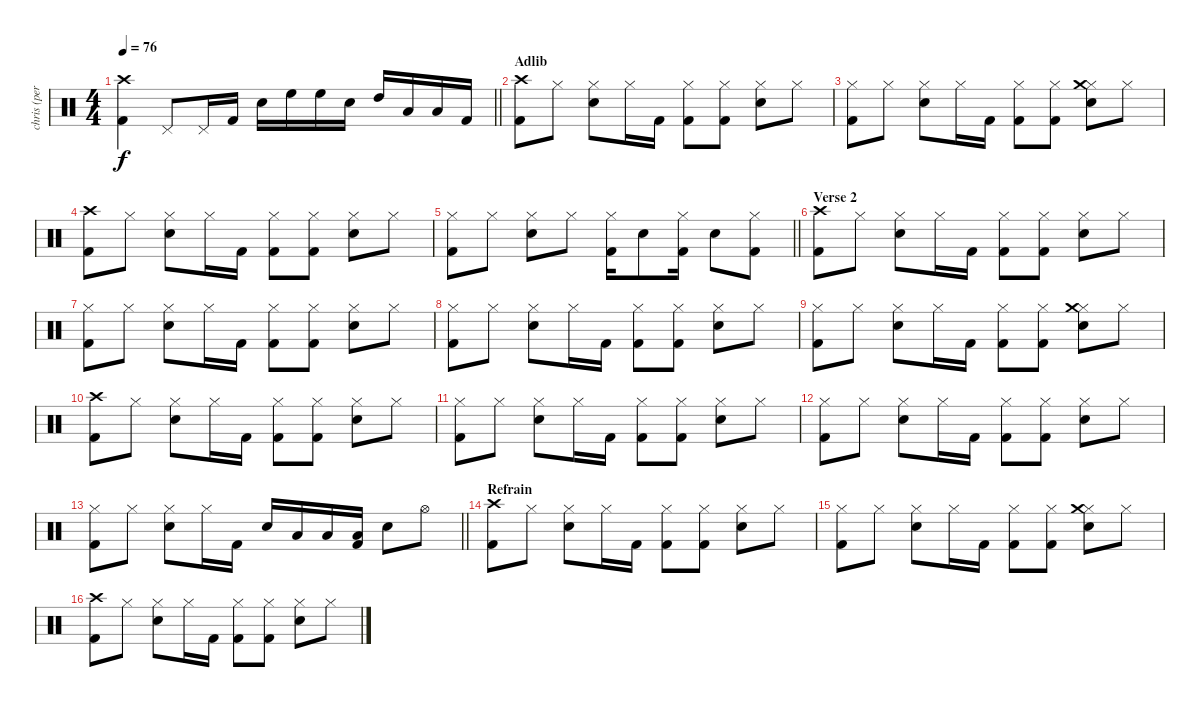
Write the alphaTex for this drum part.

\track ("chris (percussion)" "chris (per") {instrument percussion}
\staff {score}
\articulation defaults
\ts (4 4)
\tempo 76
\clef neutral
\barLineRight lightlight
\ks c
("Crash high (hit)" "Kick (hit) 2").4{dy f} "Pedal Hi-Hat (hit)".8 "Pedal Hi-Hat (hit)".16 "Kick (hit) 2".16 "Electric Snare (hit)".16 "High Floor Tom (hit)".16 "High Floor Tom (hit)".16 "Electric Snare (hit)".16 "High Tom (hit)".16 "Low Floor Tom (hit)".16 "Low Floor Tom (hit)".16 "Kick (hit) 2".16 |
\section ("" "Adlib")
("Crash high (hit)" "Kick (hit) 2").8 "Hi-Hat (closed)".8 ("Hi-Hat (closed)" "Electric Snare (hit)").8 "Hi-Hat (closed)".16 "Kick (hit) 2".16 ("Hi-Hat (closed)" "Kick (hit) 2").8 ("Hi-Hat (closed)" "Kick (hit) 2").8 ("Electric Snare (hit)" "Hi-Hat (closed)").8 "Hi-Hat (closed)".8 |
("Hi-Hat (closed)" "Kick (hit) 2").8 "Hi-Hat (closed)".8 ("Hi-Hat (closed)" "Electric Snare (hit)").8 "Hi-Hat (closed)".16 "Kick (hit) 2".16 ("Hi-Hat (closed)" "Kick (hit) 2").8 ("Hi-Hat (closed)" "Kick (hit) 2").8 ("Electric Snare (hit)" "Hi-Hat (closed)" "Crash medium (hit)").8 "Hi-Hat (closed)".8 |
("Crash high (hit)" "Kick (hit) 2").8 "Hi-Hat (closed)".8 ("Hi-Hat (closed)" "Electric Snare (hit)").8 "Hi-Hat (closed)".16 "Kick (hit) 2".16 ("Hi-Hat (closed)" "Kick (hit) 2").8 ("Hi-Hat (closed)" "Kick (hit) 2").8 ("Electric Snare (hit)" "Hi-Hat (closed)").8 "Hi-Hat (closed)".8 |
\barLineRight lightlight
("Hi-Hat (closed)" "Kick (hit) 2").8 "Hi-Hat (closed)".8 ("Hi-Hat (closed)" "Electric Snare (hit)").8 "Hi-Hat (closed)".8 ("Hi-Hat (closed)" "Kick (hit) 2").16 "Electric Snare (hit)".8 ("Hi-Hat (closed)" "Kick (hit) 2").16 "Electric Snare (hit)".8 ("Hi-Hat (closed)" "Kick (hit) 2").8 |
\section ("" "Verse 2")
("Crash high (hit)" "Kick (hit) 2").8 "Hi-Hat (closed)".8 ("Hi-Hat (closed)" "Electric Snare (hit)").8 "Hi-Hat (closed)".16 "Kick (hit) 2".16 ("Hi-Hat (closed)" "Kick (hit) 2").8 ("Hi-Hat (closed)" "Kick (hit) 2").8 ("Electric Snare (hit)" "Hi-Hat (closed)").8 "Hi-Hat (closed)".8 |
("Hi-Hat (closed)" "Kick (hit) 2").8 "Hi-Hat (closed)".8 ("Hi-Hat (closed)" "Electric Snare (hit)").8 "Hi-Hat (closed)".16 "Kick (hit) 2".16 ("Hi-Hat (closed)" "Kick (hit) 2").8 ("Hi-Hat (closed)" "Kick (hit) 2").8 ("Electric Snare (hit)" "Hi-Hat (closed)").8 "Hi-Hat (closed)".8 |
("Hi-Hat (closed)" "Kick (hit) 2").8 "Hi-Hat (closed)".8 ("Hi-Hat (closed)" "Electric Snare (hit)").8 "Hi-Hat (closed)".16 "Kick (hit) 2".16 ("Hi-Hat (closed)" "Kick (hit) 2").8 ("Hi-Hat (closed)" "Kick (hit) 2").8 ("Electric Snare (hit)" "Hi-Hat (closed)").8 "Hi-Hat (closed)".8 |
("Hi-Hat (closed)" "Kick (hit) 2").8 "Hi-Hat (closed)".8 ("Hi-Hat (closed)" "Electric Snare (hit)").8 "Hi-Hat (closed)".16 "Kick (hit) 2".16 ("Hi-Hat (closed)" "Kick (hit) 2").8 ("Hi-Hat (closed)" "Kick (hit) 2").8 ("Electric Snare (hit)" "Hi-Hat (closed)" "Crash medium (hit)").8 "Hi-Hat (closed)".8 |
("Crash high (hit)" "Kick (hit) 2").8 "Hi-Hat (closed)".8 ("Hi-Hat (closed)" "Electric Snare (hit)").8 "Hi-Hat (closed)".16 "Kick (hit) 2".16 ("Hi-Hat (closed)" "Kick (hit) 2").8 ("Hi-Hat (closed)" "Kick (hit) 2").8 ("Electric Snare (hit)" "Hi-Hat (closed)").8 "Hi-Hat (closed)".8 |
("Hi-Hat (closed)" "Kick (hit) 2").8 "Hi-Hat (closed)".8 ("Hi-Hat (closed)" "Electric Snare (hit)").8 "Hi-Hat (closed)".16 "Kick (hit) 2".16 ("Hi-Hat (closed)" "Kick (hit) 2").8 ("Hi-Hat (closed)" "Kick (hit) 2").8 ("Electric Snare (hit)" "Hi-Hat (closed)").8 "Hi-Hat (closed)".8 |
("Hi-Hat (closed)" "Kick (hit) 2").8 "Hi-Hat (closed)".8 ("Hi-Hat (closed)" "Electric Snare (hit)").8 "Hi-Hat (closed)".16 "Kick (hit) 2".16 ("Hi-Hat (closed)" "Kick (hit) 2").8 ("Hi-Hat (closed)" "Kick (hit) 2").8 ("Electric Snare (hit)" "Hi-Hat (closed)").8 "Hi-Hat (closed)".8 |
\barLineRight lightlight
("Hi-Hat (closed)" "Kick (hit) 2").8 "Hi-Hat (closed)".8 ("Hi-Hat (closed)" "Electric Snare (hit)").8 "Hi-Hat (closed)".16 "Kick (hit) 2".16 "Electric Snare (hit)".16 "Low Floor Tom (hit)".16 "Low Floor Tom (hit)".16 ("Low Floor Tom (hit)" "Kick (hit) 2").16 "Electric Snare (hit)".8 "Hi-Hat (open)".8 |
\section ("" "Refrain")
("Crash high (hit)" "Kick (hit) 2").8 "Hi-Hat (closed)".8 ("Hi-Hat (closed)" "Electric Snare (hit)").8 "Hi-Hat (closed)".16 "Kick (hit) 2".16 ("Hi-Hat (closed)" "Kick (hit) 2").8 ("Hi-Hat (closed)" "Kick (hit) 2").8 ("Electric Snare (hit)" "Hi-Hat (closed)").8 "Hi-Hat (closed)".8 |
("Hi-Hat (closed)" "Kick (hit) 2").8 "Hi-Hat (closed)".8 ("Hi-Hat (closed)" "Electric Snare (hit)").8 "Hi-Hat (closed)".16 "Kick (hit) 2".16 ("Hi-Hat (closed)" "Kick (hit) 2").8 ("Hi-Hat (closed)" "Kick (hit) 2").8 ("Electric Snare (hit)" "Hi-Hat (closed)" "Crash medium (hit)").8 "Hi-Hat (closed)".8 |
("Crash high (hit)" "Kick (hit) 2").8 "Hi-Hat (closed)".8 ("Hi-Hat (closed)" "Electric Snare (hit)").8 "Hi-Hat (closed)".16 "Kick (hit) 2".16 ("Hi-Hat (closed)" "Kick (hit) 2").8 ("Hi-Hat (closed)" "Kick (hit) 2").8 ("Electric Snare (hit)" "Hi-Hat (closed)").8 "Hi-Hat (closed)".8
